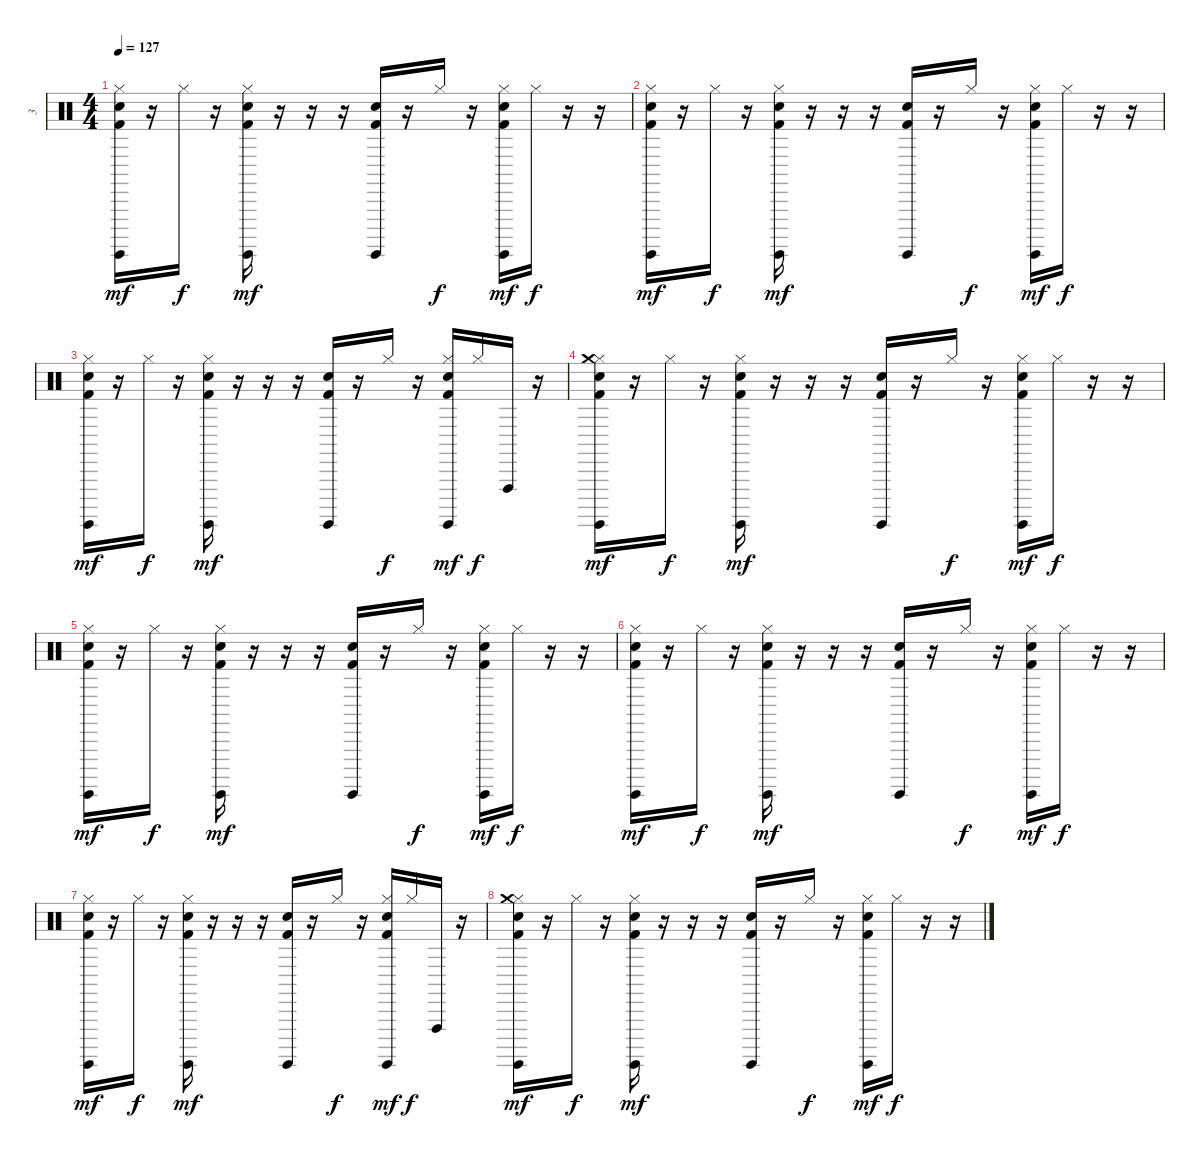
\track ("3" "3") {instrument percussion}
\staff {score}
\articulation defaults
\ts (4 4)
\tempo 127
\clef neutral
\ks c
("Hi-Hat (closed)" "Surdo (hit)" "Kick (hit) 2" "Hand Clap (hit)").16{dy mf} r.16 "Hi-Hat (closed)".16{dy f} r.16 ("Hi-Hat (closed)" "Surdo (hit)" "Kick (hit) 2" "Hand Clap (hit)").16{dy mf} r.16 r.16 r.16 ("Surdo (hit)" "Kick (hit) 2" "Hand Clap (hit)").16 r.16 "Hi-Hat (closed)".16{dy f} r.16 ("Hi-Hat (closed)" "Surdo (hit)" "Kick (hit) 2" "Hand Clap (hit)").16{dy mf} "Hi-Hat (closed)".16{dy f} r.16 r.16 |
("Hi-Hat (closed)" "Surdo (hit)" "Kick (hit) 2" "Hand Clap (hit)").16{dy mf} r.16 "Hi-Hat (closed)".16{dy f} r.16 ("Hi-Hat (closed)" "Surdo (hit)" "Kick (hit) 2" "Hand Clap (hit)").16{dy mf} r.16 r.16 r.16 ("Surdo (hit)" "Kick (hit) 2" "Hand Clap (hit)").16 r.16 "Hi-Hat (closed)".16{dy f} r.16 ("Hi-Hat (closed)" "Surdo (hit)" "Kick (hit) 2" "Hand Clap (hit)").16{dy mf} "Hi-Hat (closed)".16{dy f} r.16 r.16 |
("Hi-Hat (closed)" "Surdo (hit)" "Kick (hit) 2" "Hand Clap (hit)").16{dy mf} r.16 "Hi-Hat (closed)".16{dy f} r.16 ("Hi-Hat (closed)" "Surdo (hit)" "Kick (hit) 2" "Hand Clap (hit)").16{dy mf} r.16 r.16 r.16 ("Surdo (hit)" "Kick (hit) 2" "Hand Clap (hit)").16 r.16 "Hi-Hat (closed)".16{dy f} r.16 ("Hi-Hat (closed)" "Surdo (hit)" "Kick (hit) 2" "Hand Clap (hit)").16{dy mf} "Hi-Hat (closed)".16{dy f} "Vibraslap (hit)".16 r.16 |
("Hi-Hat (closed)" "Crash medium (hit)" "Surdo (hit)" "Kick (hit) 2" "Hand Clap (hit)").16{dy mf} r.16 "Hi-Hat (closed)".16{dy f} r.16 ("Hi-Hat (closed)" "Surdo (hit)" "Kick (hit) 2" "Hand Clap (hit)").16{dy mf} r.16 r.16 r.16 ("Surdo (hit)" "Kick (hit) 2" "Hand Clap (hit)").16 r.16 "Hi-Hat (closed)".16{dy f} r.16 ("Hi-Hat (closed)" "Surdo (hit)" "Kick (hit) 2" "Hand Clap (hit)").16{dy mf} "Hi-Hat (closed)".16{dy f} r.16 r.16 |
("Hi-Hat (closed)" "Surdo (hit)" "Kick (hit) 2" "Hand Clap (hit)").16{dy mf} r.16 "Hi-Hat (closed)".16{dy f} r.16 ("Hi-Hat (closed)" "Surdo (hit)" "Kick (hit) 2" "Hand Clap (hit)").16{dy mf} r.16 r.16 r.16 ("Surdo (hit)" "Kick (hit) 2" "Hand Clap (hit)").16 r.16 "Hi-Hat (closed)".16{dy f} r.16 ("Hi-Hat (closed)" "Surdo (hit)" "Kick (hit) 2" "Hand Clap (hit)").16{dy mf} "Hi-Hat (closed)".16{dy f} r.16 r.16 |
("Hi-Hat (closed)" "Surdo (hit)" "Kick (hit) 2" "Hand Clap (hit)").16{dy mf} r.16 "Hi-Hat (closed)".16{dy f} r.16 ("Hi-Hat (closed)" "Surdo (hit)" "Kick (hit) 2" "Hand Clap (hit)").16{dy mf} r.16 r.16 r.16 ("Surdo (hit)" "Kick (hit) 2" "Hand Clap (hit)").16 r.16 "Hi-Hat (closed)".16{dy f} r.16 ("Hi-Hat (closed)" "Surdo (hit)" "Kick (hit) 2" "Hand Clap (hit)").16{dy mf} "Hi-Hat (closed)".16{dy f} r.16 r.16 |
("Hi-Hat (closed)" "Surdo (hit)" "Kick (hit) 2" "Hand Clap (hit)").16{dy mf} r.16 "Hi-Hat (closed)".16{dy f} r.16 ("Hi-Hat (closed)" "Surdo (hit)" "Kick (hit) 2" "Hand Clap (hit)").16{dy mf} r.16 r.16 r.16 ("Surdo (hit)" "Kick (hit) 2" "Hand Clap (hit)").16 r.16 "Hi-Hat (closed)".16{dy f} r.16 ("Hi-Hat (closed)" "Surdo (hit)" "Kick (hit) 2" "Hand Clap (hit)").16{dy mf} "Hi-Hat (closed)".16{dy f} "Vibraslap (hit)".16 r.16 |
("Hi-Hat (closed)" "Crash medium (hit)" "Surdo (hit)" "Kick (hit) 2" "Hand Clap (hit)").16{dy mf} r.16 "Hi-Hat (closed)".16{dy f} r.16 ("Hi-Hat (closed)" "Surdo (hit)" "Kick (hit) 2" "Hand Clap (hit)").16{dy mf} r.16 r.16 r.16 ("Surdo (hit)" "Kick (hit) 2" "Hand Clap (hit)").16 r.16 "Hi-Hat (closed)".16{dy f} r.16 ("Hi-Hat (closed)" "Surdo (hit)" "Kick (hit) 2" "Hand Clap (hit)").16{dy mf} "Hi-Hat (closed)".16{dy f} r.16 r.16
